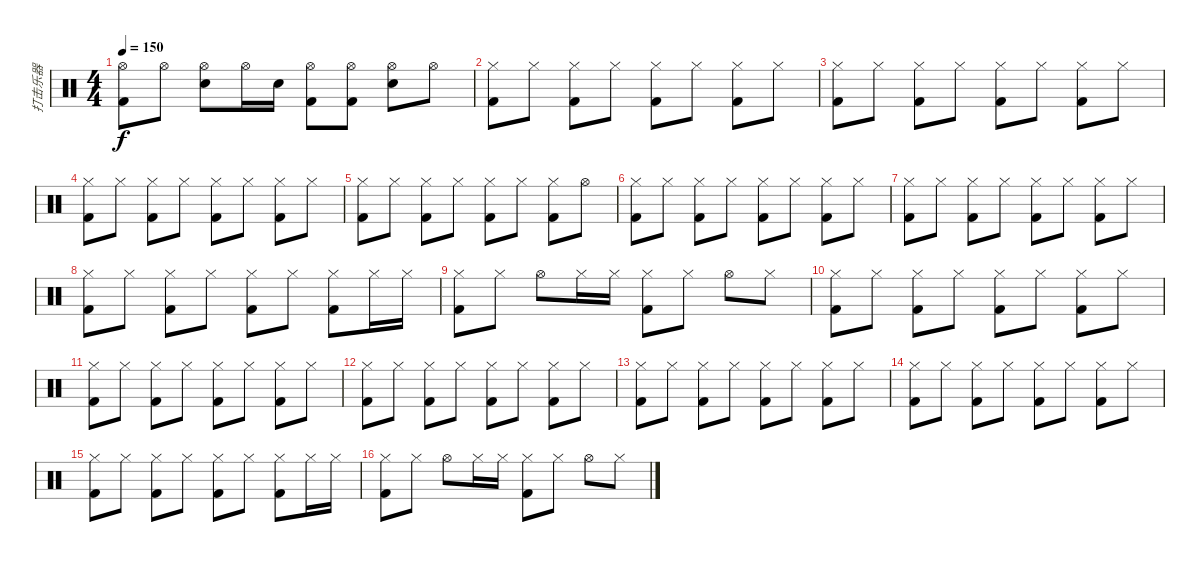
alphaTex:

\track ("打击乐器" "打击乐器") {instrument percussion}
\staff {score}
\articulation defaults
\ts (4 4)
\tempo 150
\clef neutral
\ks c
("Hi-Hat (open)" "Kick (hit) 2").8{dy f} "Hi-Hat (open)".8 ("Hi-Hat (open)" "Snare (hit) 2").8 "Hi-Hat (open)".16 "Snare (hit) 2".16 ("Hi-Hat (open)" "Kick (hit) 2").8 ("Hi-Hat (open)" "Kick (hit) 2").8 ("Hi-Hat (open)" "Snare (hit) 2").8 "Hi-Hat (open)".8 |
("Hi-Hat (closed)" "Kick (hit) 2").8 "Hi-Hat (closed)".8 ("Hi-Hat (closed)" "Kick (hit) 2").8 "Hi-Hat (closed)".8 ("Hi-Hat (closed)" "Kick (hit) 2").8 "Hi-Hat (closed)".8 ("Hi-Hat (closed)" "Kick (hit) 2").8 "Hi-Hat (closed)".8 |
("Hi-Hat (closed)" "Kick (hit) 2").8 "Hi-Hat (closed)".8 ("Hi-Hat (closed)" "Kick (hit) 2").8 "Hi-Hat (closed)".8 ("Hi-Hat (closed)" "Kick (hit) 2").8 "Hi-Hat (closed)".8 ("Hi-Hat (closed)" "Kick (hit) 2").8 "Hi-Hat (closed)".8 |
("Hi-Hat (closed)" "Kick (hit) 2").8 "Hi-Hat (closed)".8 ("Hi-Hat (closed)" "Kick (hit) 2").8 "Hi-Hat (closed)".8 ("Hi-Hat (closed)" "Kick (hit) 2").8 "Hi-Hat (closed)".8 ("Hi-Hat (closed)" "Kick (hit) 2").8 "Hi-Hat (closed)".8 |
("Hi-Hat (closed)" "Kick (hit) 2").8 "Hi-Hat (closed)".8 ("Hi-Hat (closed)" "Kick (hit) 2").8 "Hi-Hat (closed)".8 ("Hi-Hat (closed)" "Kick (hit) 2").8 "Hi-Hat (closed)".8 ("Hi-Hat (closed)" "Kick (hit) 2").8 "Hi-Hat (open)".8 |
("Hi-Hat (closed)" "Kick (hit) 2").8 "Hi-Hat (closed)".8 ("Hi-Hat (closed)" "Kick (hit) 2").8 "Hi-Hat (closed)".8 ("Hi-Hat (closed)" "Kick (hit) 2").8 "Hi-Hat (closed)".8 ("Hi-Hat (closed)" "Kick (hit) 2").8 "Hi-Hat (closed)".8 |
("Hi-Hat (closed)" "Kick (hit) 2").8 "Hi-Hat (closed)".8 ("Hi-Hat (closed)" "Kick (hit) 2").8 "Hi-Hat (closed)".8 ("Hi-Hat (closed)" "Kick (hit) 2").8 "Hi-Hat (closed)".8 ("Hi-Hat (closed)" "Kick (hit) 2").8 "Hi-Hat (closed)".8 |
("Hi-Hat (closed)" "Kick (hit) 2").8 "Hi-Hat (closed)".8 ("Hi-Hat (closed)" "Kick (hit) 2").8 "Hi-Hat (closed)".8 ("Hi-Hat (closed)" "Kick (hit) 2").8 "Hi-Hat (closed)".8 ("Hi-Hat (closed)" "Kick (hit) 2").8 "Hi-Hat (closed)".16 "Hi-Hat (closed)".16 |
("Hi-Hat (closed)" "Kick (hit) 2").8 "Hi-Hat (closed)".8 "Hi-Hat (open)".8 "Hi-Hat (closed)".16 "Hi-Hat (closed)".16 ("Hi-Hat (closed)" "Kick (hit) 2").8 "Hi-Hat (closed)".8 "Hi-Hat (open)".8 "Hi-Hat (closed)".8 |
("Hi-Hat (closed)" "Kick (hit) 2").8 "Hi-Hat (closed)".8 ("Hi-Hat (closed)" "Kick (hit) 2").8 "Hi-Hat (closed)".8 ("Hi-Hat (closed)" "Kick (hit) 2").8 "Hi-Hat (closed)".8 ("Hi-Hat (closed)" "Kick (hit) 2").8 "Hi-Hat (closed)".8 |
("Hi-Hat (closed)" "Kick (hit) 2").8 "Hi-Hat (closed)".8 ("Hi-Hat (closed)" "Kick (hit) 2").8 "Hi-Hat (closed)".8 ("Hi-Hat (closed)" "Kick (hit) 2").8 "Hi-Hat (closed)".8 ("Hi-Hat (closed)" "Kick (hit) 2").8 "Hi-Hat (closed)".8 |
("Hi-Hat (closed)" "Kick (hit) 2").8 "Hi-Hat (closed)".8 ("Hi-Hat (closed)" "Kick (hit) 2").8 "Hi-Hat (closed)".8 ("Hi-Hat (closed)" "Kick (hit) 2").8 "Hi-Hat (closed)".8 ("Hi-Hat (closed)" "Kick (hit) 2").8 "Hi-Hat (closed)".8 |
("Hi-Hat (closed)" "Kick (hit) 2").8 "Hi-Hat (closed)".8 ("Hi-Hat (closed)" "Kick (hit) 2").8 "Hi-Hat (closed)".8 ("Hi-Hat (closed)" "Kick (hit) 2").8 "Hi-Hat (closed)".8 ("Hi-Hat (closed)" "Kick (hit) 2").8 "Hi-Hat (closed)".8 |
("Hi-Hat (closed)" "Kick (hit) 2").8 "Hi-Hat (closed)".8 ("Hi-Hat (closed)" "Kick (hit) 2").8 "Hi-Hat (closed)".8 ("Hi-Hat (closed)" "Kick (hit) 2").8 "Hi-Hat (closed)".8 ("Hi-Hat (closed)" "Kick (hit) 2").8 "Hi-Hat (closed)".8 |
("Hi-Hat (closed)" "Kick (hit) 2").8 "Hi-Hat (closed)".8 ("Hi-Hat (closed)" "Kick (hit) 2").8 "Hi-Hat (closed)".8 ("Hi-Hat (closed)" "Kick (hit) 2").8 "Hi-Hat (closed)".8 ("Hi-Hat (closed)" "Kick (hit) 2").8 "Hi-Hat (closed)".16 "Hi-Hat (closed)".16 |
("Hi-Hat (closed)" "Kick (hit) 2").8 "Hi-Hat (closed)".8 "Hi-Hat (open)".8 "Hi-Hat (closed)".16 "Hi-Hat (closed)".16 ("Hi-Hat (closed)" "Kick (hit) 2").8 "Hi-Hat (closed)".8 "Hi-Hat (open)".8 "Hi-Hat (closed)".8
